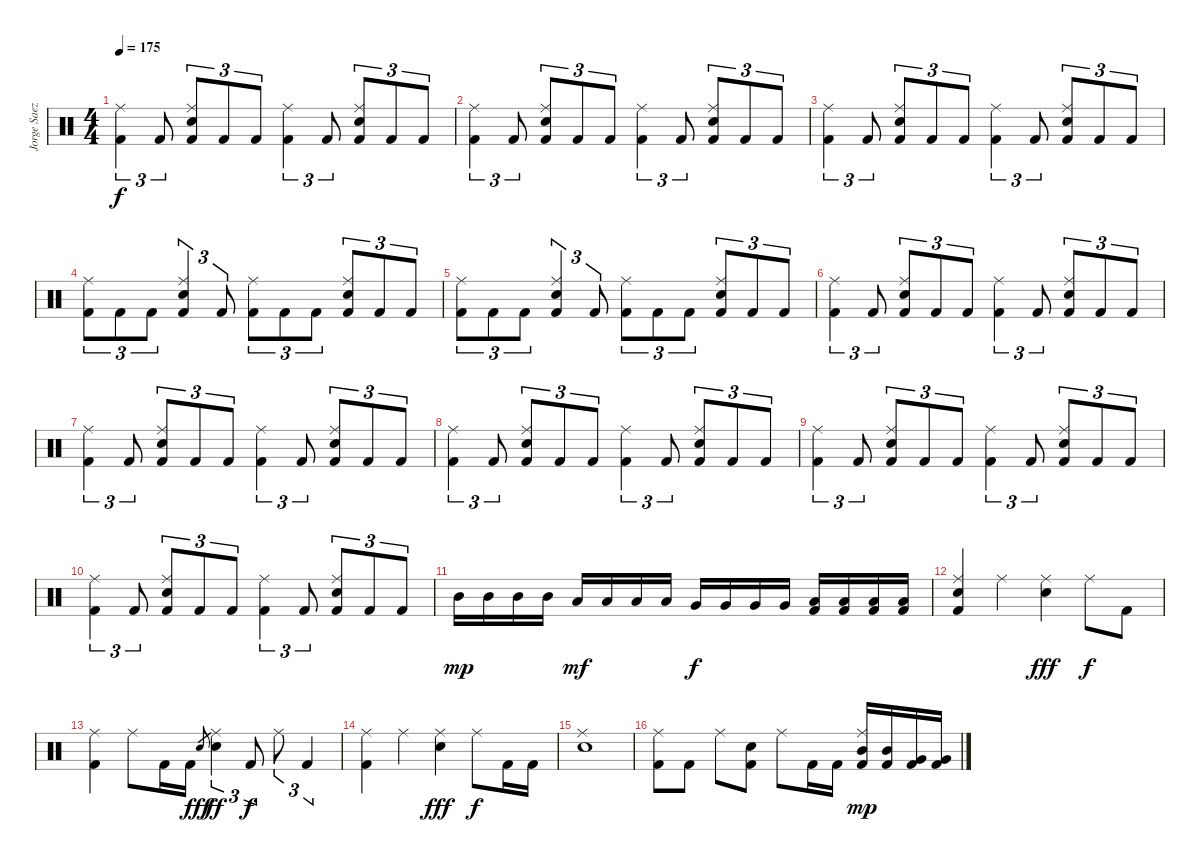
\track ("Jorge Saez, Drums" "Jorge Saez") {instrument percussion}
\staff
\articulation defaults
\ts (4 4)
\tempo 175
\clef neutral
\ks c
("Kick (hit) 2" "Ride (middle)").4{tu (3 2) dy f} "Kick (hit) 2".8{tu (3 2)} ("Kick (hit) 2" "Electric Snare (hit)" "Ride (middle)").8{tu (3 2)} "Kick (hit) 2".8{tu (3 2)} "Kick (hit) 2".8{tu (3 2)} ("Kick (hit) 2" "Ride (middle)").4{tu (3 2)} "Kick (hit) 2".8{tu (3 2)} ("Kick (hit) 2" "Electric Snare (hit)" "Ride (middle)").8{tu (3 2)} "Kick (hit) 2".8{tu (3 2)} "Kick (hit) 2".8{tu (3 2)} |
("Kick (hit) 2" "Ride (middle)").4{tu (3 2)} "Kick (hit) 2".8{tu (3 2)} ("Kick (hit) 2" "Electric Snare (hit)" "Ride (middle)").8{tu (3 2)} "Kick (hit) 2".8{tu (3 2)} "Kick (hit) 2".8{tu (3 2)} ("Kick (hit) 2" "Ride (middle)").4{tu (3 2)} "Kick (hit) 2".8{tu (3 2)} ("Kick (hit) 2" "Electric Snare (hit)" "Ride (middle)").8{tu (3 2)} "Kick (hit) 2".8{tu (3 2)} "Kick (hit) 2".8{tu (3 2)} |
("Kick (hit) 2" "Ride (middle)").4{tu (3 2)} "Kick (hit) 2".8{tu (3 2)} ("Kick (hit) 2" "Electric Snare (hit)" "Ride (middle)").8{tu (3 2)} "Kick (hit) 2".8{tu (3 2)} "Kick (hit) 2".8{tu (3 2)} ("Kick (hit) 2" "Ride (middle)").4{tu (3 2)} "Kick (hit) 2".8{tu (3 2)} ("Kick (hit) 2" "Electric Snare (hit)" "Ride (middle)").8{tu (3 2)} "Kick (hit) 2".8{tu (3 2)} "Kick (hit) 2".8{tu (3 2)} |
("Kick (hit) 2" "Ride (middle)").8{tu (3 2)} "Kick (hit) 2".8{tu (3 2)} "Kick (hit) 2".8{tu (3 2)} ("Kick (hit) 2" "Electric Snare (hit)" "Ride (middle)").4{tu (3 2)} "Kick (hit) 2".8{tu (3 2)} ("Kick (hit) 2" "Ride (middle)").8{tu (3 2)} "Kick (hit) 2".8{tu (3 2)} "Kick (hit) 2".8{tu (3 2)} ("Kick (hit) 2" "Electric Snare (hit)" "Ride (middle)").8{tu (3 2)} "Kick (hit) 2".8{tu (3 2)} "Kick (hit) 2".8{tu (3 2)} |
("Kick (hit) 2" "Ride (middle)").8{tu (3 2)} "Kick (hit) 2".8{tu (3 2)} "Kick (hit) 2".8{tu (3 2)} ("Kick (hit) 2" "Electric Snare (hit)" "Ride (middle)").4{tu (3 2)} "Kick (hit) 2".8{tu (3 2)} ("Kick (hit) 2" "Ride (middle)").8{tu (3 2)} "Kick (hit) 2".8{tu (3 2)} "Kick (hit) 2".8{tu (3 2)} ("Kick (hit) 2" "Electric Snare (hit)" "Ride (middle)").8{tu (3 2)} "Kick (hit) 2".8{tu (3 2)} "Kick (hit) 2".8{tu (3 2)} |
("Kick (hit) 2" "Ride (middle)").4{tu (3 2)} "Kick (hit) 2".8{tu (3 2)} ("Kick (hit) 2" "Electric Snare (hit)" "Ride (middle)").8{tu (3 2)} "Kick (hit) 2".8{tu (3 2)} "Kick (hit) 2".8{tu (3 2)} ("Kick (hit) 2" "Ride (middle)").4{tu (3 2)} "Kick (hit) 2".8{tu (3 2)} ("Kick (hit) 2" "Electric Snare (hit)" "Ride (middle)").8{tu (3 2)} "Kick (hit) 2".8{tu (3 2)} "Kick (hit) 2".8{tu (3 2)} |
("Kick (hit) 2" "Ride (middle)").4{tu (3 2)} "Kick (hit) 2".8{tu (3 2)} ("Kick (hit) 2" "Electric Snare (hit)" "Ride (middle)").8{tu (3 2)} "Kick (hit) 2".8{tu (3 2)} "Kick (hit) 2".8{tu (3 2)} ("Kick (hit) 2" "Ride (middle)").4{tu (3 2)} "Kick (hit) 2".8{tu (3 2)} ("Kick (hit) 2" "Electric Snare (hit)" "Ride (middle)").8{tu (3 2)} "Kick (hit) 2".8{tu (3 2)} "Kick (hit) 2".8{tu (3 2)} |
("Kick (hit) 2" "Ride (middle)").4{tu (3 2)} "Kick (hit) 2".8{tu (3 2)} ("Kick (hit) 2" "Electric Snare (hit)" "Ride (middle)").8{tu (3 2)} "Kick (hit) 2".8{tu (3 2)} "Kick (hit) 2".8{tu (3 2)} ("Kick (hit) 2" "Ride (middle)").4{tu (3 2)} "Kick (hit) 2".8{tu (3 2)} ("Kick (hit) 2" "Electric Snare (hit)" "Ride (middle)").8{tu (3 2)} "Kick (hit) 2".8{tu (3 2)} "Kick (hit) 2".8{tu (3 2)} |
("Kick (hit) 2" "Ride (middle)").4{tu (3 2)} "Kick (hit) 2".8{tu (3 2)} ("Kick (hit) 2" "Electric Snare (hit)" "Ride (middle)").8{tu (3 2)} "Kick (hit) 2".8{tu (3 2)} "Kick (hit) 2".8{tu (3 2)} ("Kick (hit) 2" "Ride (middle)").4{tu (3 2)} "Kick (hit) 2".8{tu (3 2)} ("Kick (hit) 2" "Electric Snare (hit)" "Ride (middle)").8{tu (3 2)} "Kick (hit) 2".8{tu (3 2)} "Kick (hit) 2".8{tu (3 2)} |
("Kick (hit) 2" "Ride (middle)").4{tu (3 2)} "Kick (hit) 2".8{tu (3 2)} ("Kick (hit) 2" "Electric Snare (hit)" "Ride (middle)").8{tu (3 2)} "Kick (hit) 2".8{tu (3 2)} "Kick (hit) 2".8{tu (3 2)} ("Kick (hit) 2" "Ride (middle)").4{tu (3 2)} "Kick (hit) 2".8{tu (3 2)} ("Kick (hit) 2" "Electric Snare (hit)" "Ride (middle)").8{tu (3 2)} "Kick (hit) 2".8{tu (3 2)} "Kick (hit) 2".8{tu (3 2)} |
"Mid Tom (hit)".16{dy mp} "Mid Tom (hit)".16 "Mid Tom (hit)".16 "Mid Tom (hit)".16 "Low Tom (hit)".16{dy mf} "Low Tom (hit)".16 "Low Tom (hit)".16 "Low Tom (hit)".16 "Very Low Tom (hit)".16{dy f} "Very Low Tom (hit)".16 "Very Low Tom (hit)".16 "Very Low Tom (hit)".16 ("Kick (hit) 2" "Low Floor Tom (hit)").16 ("Kick (hit) 2" "Low Floor Tom (hit)").16 ("Kick (hit) 2" "Low Floor Tom (hit)").16 ("Kick (hit) 2" "Low Floor Tom (hit)").16 |
("Kick (hit) 2" "Electric Snare (hit)" "Ride (middle)").4 "Ride (middle)".4 ("Electric Snare (hit)" "Ride (middle)").4{dy fff} "Ride (middle)".8{dy f} "Kick (hit) 2".8 |
("Kick (hit) 2" "Ride (middle)").4 "Ride (middle)".8 "Kick (hit) 2".16 "Kick (hit) 2".16 "Electric Snare (hit)".8{gr dy fff} ("Electric Snare (hit)" "Ride (middle)").4{tu (3 2) dy ff} "Kick (hit) 2".8{tu (3 2) dy f} "Ride (middle)".8{tu (3 2)} "Kick (hit) 2".4{tu (3 2)} |
("Kick (hit) 2" "Ride (middle)").4 "Ride (middle)".4 ("Electric Snare (hit)" "Ride (middle)").4{dy fff} "Ride (middle)".8{dy f} "Kick (hit) 2".16 "Kick (hit) 2".16 |
("Electric Snare (hit)" "Ride (middle)").1 |
("Kick (hit) 2" "Ride (middle)").8 "Kick (hit) 2".8 "Ride (middle)".8 ("Kick (hit) 2" "Electric Snare (hit)").8 "Ride (middle)".8 "Kick (hit) 2".16 "Kick (hit) 2".16 ("Kick (hit) 2" "Mid Tom (hit)" "Ride (middle)").16{dy mp} ("Kick (hit) 2" "Mid Tom (hit)").16 ("Kick (hit) 2" "Very Low Tom (hit)").16 ("Kick (hit) 2" "Very Low Tom (hit)").16
